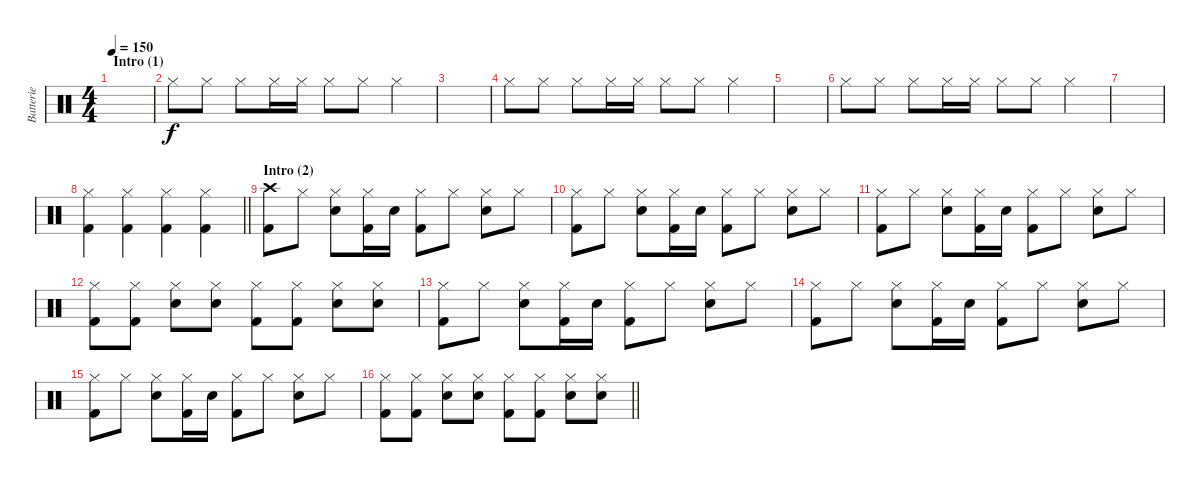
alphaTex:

\track ("Batterie" "Batterie") {instrument percussion}
\staff {score}
\articulation defaults
\ts (4 4)
\section ("" "Intro (1)")
\tempo 150
\clef neutral
\ks c
|
"Hi-Hat (closed)".8 "Hi-Hat (closed)".8 "Hi-Hat (closed)".8 "Hi-Hat (closed)".16 "Hi-Hat (closed)".16 "Hi-Hat (closed)".8 "Hi-Hat (closed)".8 "Hi-Hat (closed)".4 |
|
"Hi-Hat (closed)".8 "Hi-Hat (closed)".8 "Hi-Hat (closed)".8 "Hi-Hat (closed)".16 "Hi-Hat (closed)".16 "Hi-Hat (closed)".8 "Hi-Hat (closed)".8 "Hi-Hat (closed)".4 |
|
"Hi-Hat (closed)".8 "Hi-Hat (closed)".8 "Hi-Hat (closed)".8 "Hi-Hat (closed)".16 "Hi-Hat (closed)".16 "Hi-Hat (closed)".8 "Hi-Hat (closed)".8 "Hi-Hat (closed)".4 |
|
\barLineRight lightlight
("Hi-Hat (closed)" "Kick (hit) 2").4 ("Hi-Hat (closed)" "Kick (hit) 2").4 ("Hi-Hat (closed)" "Kick (hit) 2").4 ("Hi-Hat (closed)" "Kick (hit) 2").4 |
\section ("" "Intro (2)")
("Crash high (hit)" "Kick (hit) 2").8 "Hi-Hat (closed)".8 ("Hi-Hat (closed)" "Electric Snare (hit)").8 ("Hi-Hat (closed)" "Kick (hit) 2").16 "Electric Snare (hit)".16 ("Hi-Hat (closed)" "Kick (hit) 2").8 "Hi-Hat (closed)".8 ("Hi-Hat (closed)" "Electric Snare (hit)").8 "Hi-Hat (closed)".8 |
("Hi-Hat (closed)" "Kick (hit) 2").8 "Hi-Hat (closed)".8 ("Hi-Hat (closed)" "Electric Snare (hit)").8 ("Hi-Hat (closed)" "Kick (hit) 2").16 "Electric Snare (hit)".16 ("Hi-Hat (closed)" "Kick (hit) 2").8 "Hi-Hat (closed)".8 ("Hi-Hat (closed)" "Electric Snare (hit)").8 "Hi-Hat (closed)".8 |
("Hi-Hat (closed)" "Kick (hit) 2").8 "Hi-Hat (closed)".8 ("Hi-Hat (closed)" "Electric Snare (hit)").8 ("Hi-Hat (closed)" "Kick (hit) 2").16 "Electric Snare (hit)".16 ("Hi-Hat (closed)" "Kick (hit) 2").8 "Hi-Hat (closed)".8 ("Hi-Hat (closed)" "Electric Snare (hit)").8 "Hi-Hat (closed)".8 |
("Hi-Hat (closed)" "Kick (hit) 2").8 ("Hi-Hat (closed)" "Kick (hit) 2").8 ("Hi-Hat (closed)" "Electric Snare (hit)").8 ("Hi-Hat (closed)" "Electric Snare (hit)").8 ("Hi-Hat (closed)" "Kick (hit) 2").8 ("Hi-Hat (closed)" "Kick (hit) 2").8 ("Hi-Hat (closed)" "Electric Snare (hit)").8 ("Hi-Hat (closed)" "Electric Snare (hit)").8 |
("Hi-Hat (closed)" "Kick (hit) 2").8 "Hi-Hat (closed)".8 ("Hi-Hat (closed)" "Electric Snare (hit)").8 ("Hi-Hat (closed)" "Kick (hit) 2").16 "Electric Snare (hit)".16 ("Hi-Hat (closed)" "Kick (hit) 2").8 "Hi-Hat (closed)".8 ("Hi-Hat (closed)" "Electric Snare (hit)").8 "Hi-Hat (closed)".8 |
("Hi-Hat (closed)" "Kick (hit) 2").8 "Hi-Hat (closed)".8 ("Hi-Hat (closed)" "Electric Snare (hit)").8 ("Hi-Hat (closed)" "Kick (hit) 2").16 "Electric Snare (hit)".16 ("Hi-Hat (closed)" "Kick (hit) 2").8 "Hi-Hat (closed)".8 ("Hi-Hat (closed)" "Electric Snare (hit)").8 "Hi-Hat (closed)".8 |
("Hi-Hat (closed)" "Kick (hit) 2").8 "Hi-Hat (closed)".8 ("Hi-Hat (closed)" "Electric Snare (hit)").8 ("Hi-Hat (closed)" "Kick (hit) 2").16 "Electric Snare (hit)".16 ("Hi-Hat (closed)" "Kick (hit) 2").8 "Hi-Hat (closed)".8 ("Hi-Hat (closed)" "Electric Snare (hit)").8 "Hi-Hat (closed)".8 |
\barLineRight lightlight
("Hi-Hat (closed)" "Kick (hit) 2").8 ("Hi-Hat (closed)" "Kick (hit) 2").8 ("Hi-Hat (closed)" "Electric Snare (hit)").8 ("Hi-Hat (closed)" "Electric Snare (hit)").8 ("Hi-Hat (closed)" "Kick (hit) 2").8 ("Hi-Hat (closed)" "Kick (hit) 2").8 ("Hi-Hat (closed)" "Electric Snare (hit)").8 ("Hi-Hat (closed)" "Electric Snare (hit)").8
